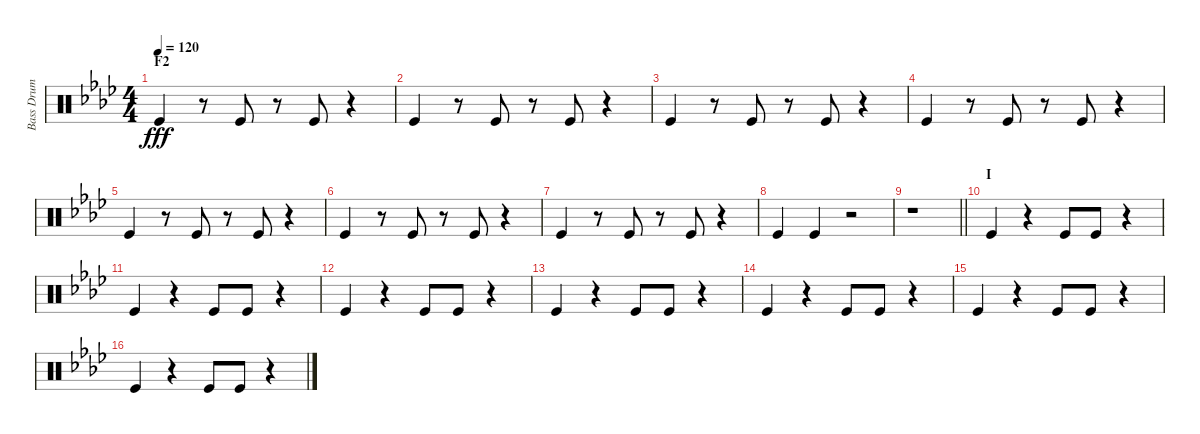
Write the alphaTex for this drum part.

\track ("Bass Drum" "Bass Drum") {instrument percussion}
\staff {score}
\articulation defaults
\ts (4 4)
\section ("" "F2")
\tempo 120
\clef neutral
\ks ab "Kick (hit)".4{dy fff}
r.8 "Kick (hit)".8 r.8 "Kick (hit)".8 r.4 |
"Kick (hit)".4 r.8 "Kick (hit)".8 r.8 "Kick (hit)".8 r.4 |
"Kick (hit)".4 r.8 "Kick (hit)".8 r.8 "Kick (hit)".8 r.4 |
"Kick (hit)".4 r.8 "Kick (hit)".8 r.8 "Kick (hit)".8 r.4 |
"Kick (hit)".4 r.8 "Kick (hit)".8 r.8 "Kick (hit)".8 r.4 |
"Kick (hit)".4 r.8 "Kick (hit)".8 r.8 "Kick (hit)".8 r.4 |
"Kick (hit)".4 r.8 "Kick (hit)".8 r.8 "Kick (hit)".8 r.4 |
"Kick (hit)".4 "Kick (hit)".4 r.2 |
\barLineRight lightlight
r.1 |
\section ("" "I")
"Kick (hit)".4 r.4 "Kick (hit)".8 "Kick (hit)".8 r.4 |
"Kick (hit)".4 r.4 "Kick (hit)".8 "Kick (hit)".8 r.4 |
"Kick (hit)".4 r.4 "Kick (hit)".8 "Kick (hit)".8 r.4 |
"Kick (hit)".4 r.4 "Kick (hit)".8 "Kick (hit)".8 r.4 |
"Kick (hit)".4 r.4 "Kick (hit)".8 "Kick (hit)".8 r.4 |
"Kick (hit)".4 r.4 "Kick (hit)".8 "Kick (hit)".8 r.4 |
"Kick (hit)".4 r.4 "Kick (hit)".8 "Kick (hit)".8 r.4
